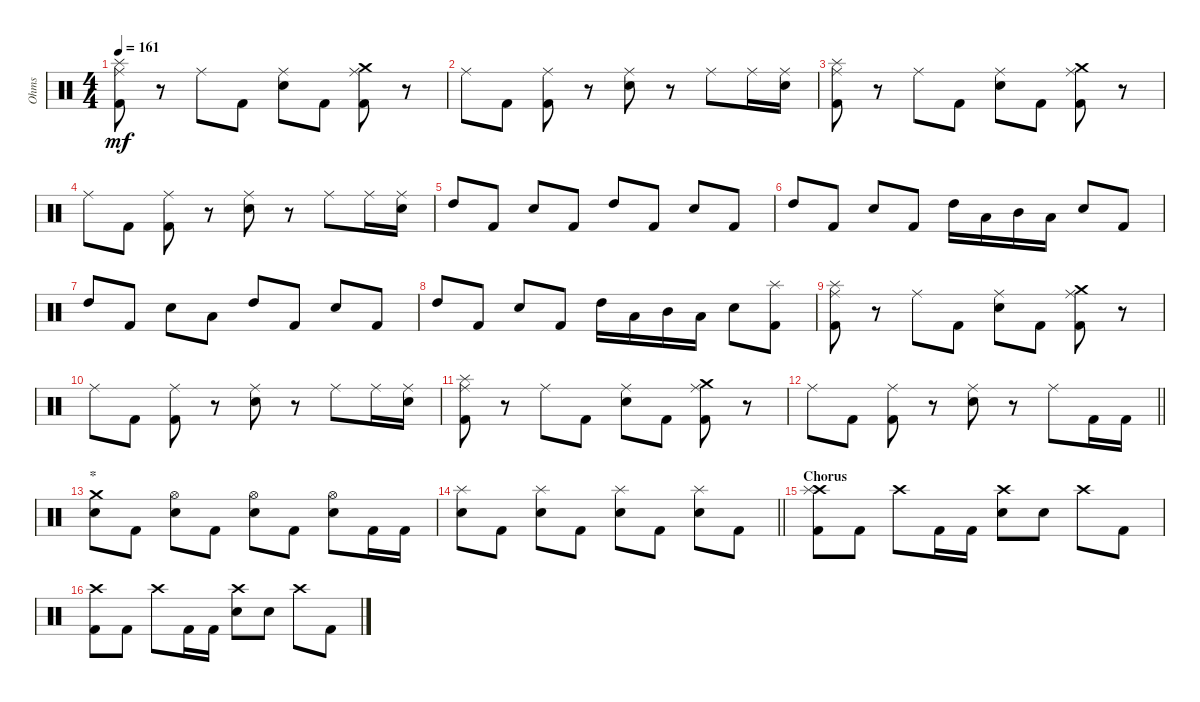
\track ("Ohms" "Ohms") {instrument percussion}
\staff {score}
\articulation defaults
\ts (4 4)
\tempo 161
\clef neutral
\ks c
("Ride (middle)" "Splash (hit)" "Kick (hit) 2").8{dy mf} r.8 "Ride (middle)".8 "Kick (hit) 2".8 ("Ride (middle)" "Snare (hit) 2").8 "Kick (hit) 2".8 ("Ride (middle)" "Crash medium (hit)" "Kick (hit) 2").8 r.8 |
"Ride (middle)".8 "Kick (hit) 2".8 ("Ride (middle)" "Kick (hit) 2").8 r.8 ("Ride (middle)" "Snare (hit) 2").8 r.8 "Ride (middle)".8 "Ride (middle)".16 ("Ride (middle)" "Snare (hit) 2").16 |
("Ride (middle)" "Splash (hit)" "Kick (hit) 2").8 r.8 "Ride (middle)".8 "Kick (hit) 2".8 ("Ride (middle)" "Snare (hit) 2").8 "Kick (hit) 2".8 ("Ride (middle)" "Crash medium (hit)" "Kick (hit) 2").8 r.8 |
"Ride (middle)".8 "Kick (hit) 2".8 ("Ride (middle)" "Kick (hit) 2").8 r.8 ("Ride (middle)" "Snare (hit) 2").8 r.8 "Ride (middle)".8 "Ride (middle)".16 ("Ride (middle)" "Snare (hit) 2").16 |
"High Tom (hit)".8 "Kick (hit) 2".8 "Snare (hit) 2".8 "Kick (hit) 2".8 "High Tom (hit)".8 "Kick (hit) 2".8 "Snare (hit) 2".8 "Kick (hit) 2".8 |
"High Tom (hit)".8 "Kick (hit) 2".8 "Snare (hit) 2".8 "Kick (hit) 2".8 "High Tom (hit)".16 "Low Tom (hit)".16 "Mid Tom (hit)".16 "Low Tom (hit)".16 "Snare (hit) 2".8 "Kick (hit) 2".8 |
"High Tom (hit)".8 "Kick (hit) 2".8 "Snare (hit) 2".8 "Low Tom (hit)".8 "High Tom (hit)".8 "Kick (hit) 2".8 "Snare (hit) 2".8 "Kick (hit) 2".8 |
"High Tom (hit)".8 "Kick (hit) 2".8 "Snare (hit) 2".8 "Kick (hit) 2".8 "High Tom (hit)".16 "Low Tom (hit)".16 "Mid Tom (hit)".16 "Low Tom (hit)".16 "Snare (hit) 2".8 ("Splash (hit)" "Kick (hit) 2").8 |
("Ride (middle)" "Splash (hit)" "Kick (hit) 2").8 r.8 "Ride (middle)".8 "Kick (hit) 2".8 ("Ride (middle)" "Snare (hit) 2").8 "Kick (hit) 2".8 ("Ride (middle)" "Crash medium (hit)" "Kick (hit) 2").8 r.8 |
"Ride (middle)".8 "Kick (hit) 2".8 ("Ride (middle)" "Kick (hit) 2").8 r.8 ("Ride (middle)" "Snare (hit) 2").8 r.8 "Ride (middle)".8 "Ride (middle)".16 ("Ride (middle)" "Snare (hit) 2").16 |
("Ride (middle)" "Splash (hit)" "Kick (hit) 2").8 r.8 "Ride (middle)".8 "Kick (hit) 2".8 ("Ride (middle)" "Snare (hit) 2").8 "Kick (hit) 2".8 ("Ride (middle)" "Crash medium (hit)" "Kick (hit) 2").8 r.8 |
\barLineRight lightlight "Ride (middle)".8 "Kick (hit) 2".8
("Ride (middle)" "Kick (hit) 2").8 r.8 ("Ride (middle)" "Snare (hit) 2").8 r.8 "Ride (middle)".8 "Kick (hit) 2".16 "Kick (hit) 2".16 |
\section ("" "*")
("Crash medium (hit)" "Snare (hit) 2").8 "Kick (hit) 2".8 ("Hi-Hat (open)" "Snare (hit) 2").8 "Kick (hit) 2".8 ("Hi-Hat (open)" "Snare (hit) 2").8 "Kick (hit) 2".8 ("Hi-Hat (open)" "Snare (hit) 2").8 "Kick (hit) 2".16 "Kick (hit) 2".16 |
\barLineRight lightlight
("Splash (hit)" "Snare (hit) 2").8 "Kick (hit) 2".8 ("Splash (hit)" "Snare (hit) 2").8 "Kick (hit) 2".8 ("Splash (hit)" "Snare (hit) 2").8 "Kick (hit) 2".8 ("Splash (hit)" "Snare (hit) 2").8 "Kick (hit) 2".8 |
\section ("" "Chorus")
("Crash high (hit)" "Splash (hit)" "Kick (hit) 2").8 "Kick (hit) 2".8 "Crash high (hit)".8 "Kick (hit) 2".16 "Kick (hit) 2".16 ("Crash high (hit)" "Snare (hit) 2").8 "Snare (hit) 2".8 "Crash high (hit)".8 "Kick (hit) 2".8 |
("Crash high (hit)" "Kick (hit) 2").8 "Kick (hit) 2".8 "Crash high (hit)".8 "Kick (hit) 2".16 "Kick (hit) 2".16 ("Crash high (hit)" "Snare (hit) 2").8 "Snare (hit) 2".8 "Crash high (hit)".8 "Kick (hit) 2".8
